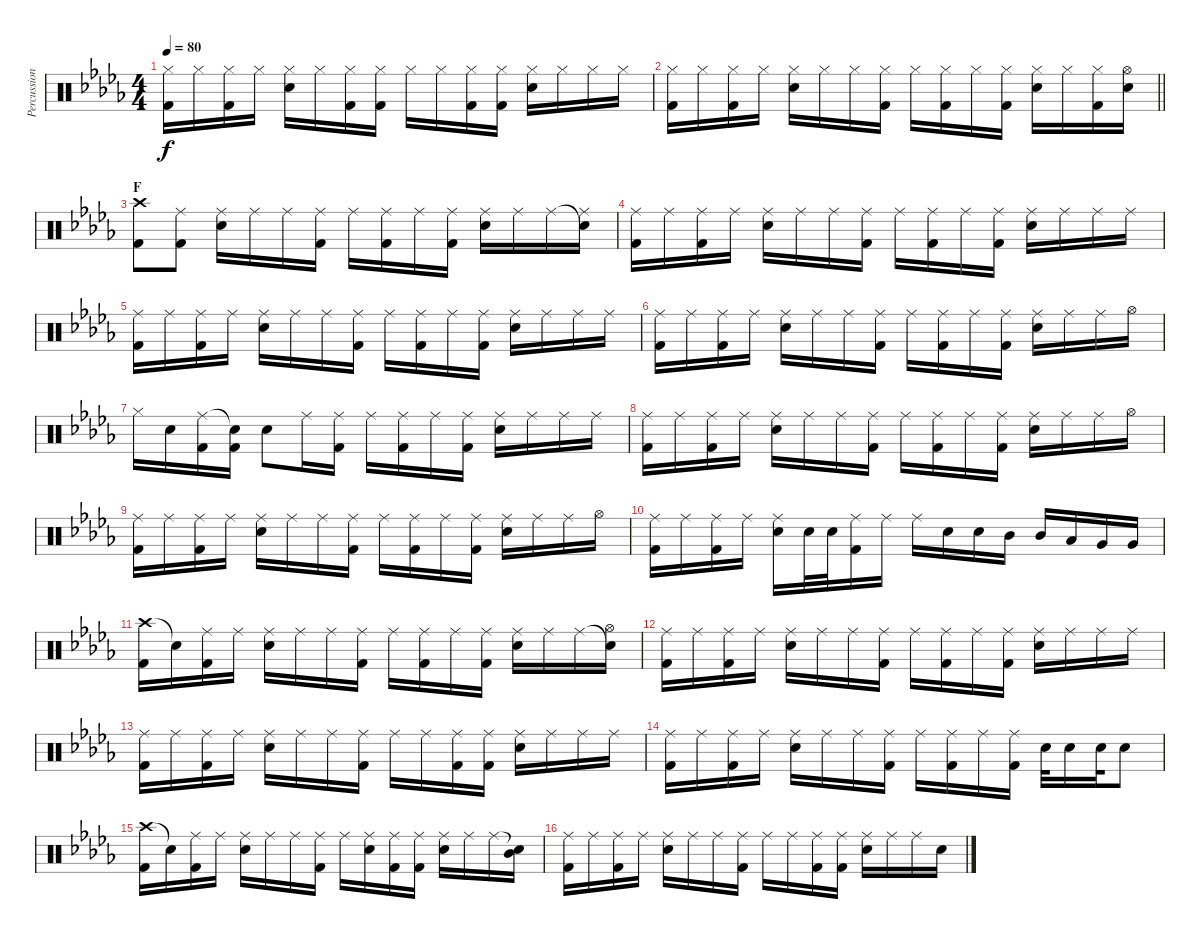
\track ("Percussion" "Percussion") {instrument percussion}
\staff {score}
\articulation defaults
\ts (4 4)
\tempo 80
\clef neutral
\ks db
("Hi-Hat (closed)" "Kick (hit) 2").16{dy f} "Hi-Hat (closed)".16 ("Hi-Hat (closed)" "Kick (hit) 2").16 "Hi-Hat (closed)".16 ("Hi-Hat (closed)" "Electric Snare (hit)").16 "Hi-Hat (closed)".16 ("Hi-Hat (closed)" "Kick (hit) 2").16 ("Hi-Hat (closed)" "Kick (hit) 2").16 "Hi-Hat (closed)".16 "Hi-Hat (closed)".16 ("Hi-Hat (closed)" "Kick (hit) 2").16 ("Hi-Hat (closed)" "Kick (hit) 2").16 ("Hi-Hat (closed)" "Electric Snare (hit)").16 "Hi-Hat (closed)".16 "Hi-Hat (closed)".16 "Hi-Hat (closed)".16 |
\barLineRight lightlight
("Hi-Hat (closed)" "Kick (hit) 2").16 "Hi-Hat (closed)".16 ("Hi-Hat (closed)" "Kick (hit) 2").16 "Hi-Hat (closed)".16 ("Hi-Hat (closed)" "Electric Snare (hit)").16 "Hi-Hat (closed)".16 "Hi-Hat (closed)".16 ("Hi-Hat (closed)" "Kick (hit) 2").16 "Hi-Hat (closed)".16 ("Hi-Hat (closed)" "Kick (hit) 2").16 "Hi-Hat (closed)".16 ("Hi-Hat (closed)" "Kick (hit) 2").16 ("Hi-Hat (closed)" "Electric Snare (hit)").16 "Hi-Hat (closed)".16 ("Hi-Hat (closed)" "Kick (hit) 2").16 ("Hi-Hat (open)" "Electric Snare (hit)").16 |
\section ("" "F")
("Crash high (hit)" "Kick (hit) 2").8 ("Ride (middle)" "Kick (hit) 2").8 ("Ride (middle)" "Electric Snare (hit)").16 "Ride (middle)".16 "Ride (middle)".16 ("Ride (middle)" "Kick (hit) 2").16 "Ride (middle)".16 ("Ride (middle)" "Kick (hit) 2").16 "Ride (middle)".16 ("Ride (middle)" "Kick (hit) 2").16 ("Ride (middle)" "Electric Snare (hit)").16 "Ride (middle)".16 "Ride (middle)".16 ("Snare (hit)"{t} "Ride (middle)").16 |
("Ride (middle)" "Kick (hit) 2").16 "Ride (middle)".16 ("Ride (middle)" "Kick (hit) 2").16 "Ride (middle)".16 ("Ride (middle)" "Electric Snare (hit)").16 "Ride (middle)".16 "Ride (middle)".16 ("Ride (middle)" "Kick (hit) 2").16 "Ride (middle)".16 ("Ride (middle)" "Kick (hit) 2").16 "Ride (middle)".16 ("Ride (middle)" "Kick (hit) 2").16 ("Ride (middle)" "Electric Snare (hit)").16 "Ride (middle)".16 "Ride (middle)".16 "Ride (middle)".16 |
("Ride (middle)" "Kick (hit) 2").16 "Ride (middle)".16 ("Ride (middle)" "Kick (hit) 2").16 "Ride (middle)".16 ("Ride (middle)" "Electric Snare (hit)").16 "Ride (middle)".16 "Ride (middle)".16 ("Ride (middle)" "Kick (hit) 2").16 "Ride (middle)".16 ("Ride (middle)" "Kick (hit) 2").16 "Ride (middle)".16 ("Ride (middle)" "Kick (hit) 2").16 ("Ride (middle)" "Electric Snare (hit)").16 "Ride (middle)".16 "Ride (middle)".16 "Ride (middle)".16 |
("Ride (middle)" "Kick (hit) 2").16 "Ride (middle)".16 ("Ride (middle)" "Kick (hit) 2").16 "Ride (middle)".16 ("Ride (middle)" "Electric Snare (hit)").16 "Ride (middle)".16 "Ride (middle)".16 ("Ride (middle)" "Kick (hit) 2").16 "Ride (middle)".16 ("Ride (middle)" "Kick (hit) 2").16 "Ride (middle)".16 ("Ride (middle)" "Kick (hit) 2").16 ("Ride (middle)" "Electric Snare (hit)").16 "Ride (middle)".16 "Ride (middle)".16 "Hi-Hat (open)".16 |
"Hi-Hat (closed)".16 "Electric Snare (hit)".16 ("Ride (middle)" "Kick (hit) 2").16 ("Snare (hit)"{t} "Kick (hit) 2").16 "Electric Snare (hit)".8 "Ride (middle)".16 ("Ride (middle)" "Kick (hit) 2").16 "Ride (middle)".16 ("Ride (middle)" "Kick (hit) 2").16 "Ride (middle)".16 ("Ride (middle)" "Kick (hit) 2").16 ("Ride (middle)" "Electric Snare (hit)").16 "Ride (middle)".16 "Ride (middle)".16 "Ride (middle)".16 |
("Ride (middle)" "Kick (hit) 2").16 "Ride (middle)".16 ("Ride (middle)" "Kick (hit) 2").16 "Ride (middle)".16 ("Ride (middle)" "Electric Snare (hit)").16 "Ride (middle)".16 "Ride (middle)".16 ("Ride (middle)" "Kick (hit) 2").16 "Ride (middle)".16 ("Ride (middle)" "Kick (hit) 2").16 "Ride (middle)".16 ("Ride (middle)" "Kick (hit) 2").16 ("Ride (middle)" "Electric Snare (hit)").16 "Ride (middle)".16 "Ride (middle)".16 "Hi-Hat (open)".16 |
("Ride (middle)" "Kick (hit) 2").16 "Ride (middle)".16 ("Ride (middle)" "Kick (hit) 2").16 "Ride (middle)".16 ("Ride (middle)" "Electric Snare (hit)").16 "Ride (middle)".16 "Ride (middle)".16 ("Ride (middle)" "Kick (hit) 2").16 "Ride (middle)".16 ("Ride (middle)" "Kick (hit) 2").16 "Ride (middle)".16 ("Ride (middle)" "Kick (hit) 2").16 ("Ride (middle)" "Electric Snare (hit)").16 "Ride (middle)".16 "Ride (middle)".16 "Hi-Hat (open)".16 |
("Ride (middle)" "Kick (hit) 2").16 "Ride (middle)".16 ("Ride (middle)" "Kick (hit) 2").16 "Ride (middle)".16 ("Ride (middle)" "Electric Snare (hit)").16 "Electric Snare (hit)".32 "Electric Snare (hit)".32 ("Ride (middle)" "Kick (hit) 2").16 "Ride (middle)".16 "Ride (middle)".16 "Electric Snare (hit)".16 "Electric Snare (hit)".16 "Mid Tom (hit)".16 "Mid Tom (hit)".16 "Low Tom (hit)".16 "Very Low Tom (hit)".16 "Very Low Tom (hit)".16 |
("Crash high (hit)" "Kick (hit) 2").16 "Snare (hit)"{t}.16 ("Ride (middle)" "Kick (hit) 2").16 "Ride (middle)".16 ("Ride (middle)" "Electric Snare (hit)").16 "Ride (middle)".16 "Ride (middle)".16 ("Ride (middle)" "Kick (hit) 2").16 "Ride (middle)".16 ("Ride (middle)" "Kick (hit) 2").16 "Ride (middle)".16 ("Ride (middle)" "Kick (hit) 2").16 ("Ride (middle)" "Electric Snare (hit)").16 "Ride (middle)".16 "Ride (middle)".16 ("Snare (hit)"{t} "Hi-Hat (open)").16 |
("Ride (middle)" "Kick (hit) 2").16 "Ride (middle)".16 ("Ride (middle)" "Kick (hit) 2").16 "Ride (middle)".16 ("Ride (middle)" "Electric Snare (hit)").16 "Ride (middle)".16 "Ride (middle)".16 ("Ride (middle)" "Kick (hit) 2").16 "Ride (middle)".16 ("Ride (middle)" "Kick (hit) 2").16 "Ride (middle)".16 ("Ride (middle)" "Kick (hit) 2").16 ("Ride (middle)" "Electric Snare (hit)").16 "Ride (middle)".16 "Ride (middle)".16 "Ride (middle)".16 |
("Ride (middle)" "Kick (hit) 2").16 "Ride (middle)".16 ("Ride (middle)" "Kick (hit) 2").16 "Ride (middle)".16 ("Ride (middle)" "Electric Snare (hit)").16 "Ride (middle)".16 "Ride (middle)".16 ("Ride (middle)" "Kick (hit) 2").16 "Ride (middle)".16 "Ride (middle)".16 ("Ride (middle)" "Kick (hit) 2").16 ("Ride (middle)" "Kick (hit) 2").16 ("Ride (middle)" "Electric Snare (hit)").16 "Ride (middle)".16 "Ride (middle)".16 "Ride (middle)".16 |
("Ride (middle)" "Kick (hit) 2").16 "Ride (middle)".16 ("Ride (middle)" "Kick (hit) 2").16 "Ride (middle)".16 ("Ride (middle)" "Electric Snare (hit)").16 "Ride (middle)".16 "Ride (middle)".16 ("Ride (middle)" "Kick (hit) 2").16 "Ride (middle)".16 ("Ride (middle)" "Kick (hit) 2").16 "Ride (middle)".16 ("Ride (middle)" "Kick (hit) 2").16 "Electric Snare (hit)".32 "Electric Snare (hit)".16 "Electric Snare (hit)".32 "Electric Snare (hit)".8 |
("Crash high (hit)" "Kick (hit) 2").16 "Snare (hit)"{t}.16 ("Ride (middle)" "Kick (hit) 2").16 "Ride (middle)".16 ("Ride (middle)" "Electric Snare (hit)").16 "Ride (middle)".16 "Ride (middle)".16 ("Ride (middle)" "Kick (hit) 2").16 "Ride (middle)".16 ("Ride (middle)" "Electric Snare (hit)").16 ("Ride (middle)" "Kick (hit) 2").16 ("Ride (middle)" "Kick (hit) 2").16 ("Ride (middle)" "Electric Snare (hit)").16 "Ride (middle)".16 "Ride (middle)".16 ("Snare (hit)"{t} "Mid Tom (hit)").16 |
("Ride (middle)" "Kick (hit) 2").16 "Ride (middle)".16 ("Ride (middle)" "Kick (hit) 2").16 "Ride (middle)".16 ("Ride (middle)" "Electric Snare (hit)").16 "Ride (middle)".16 "Ride (middle)".16 ("Ride (middle)" "Kick (hit) 2").16 "Ride (middle)".16 "Ride (middle)".16 ("Ride (middle)" "Kick (hit) 2").16 ("Ride (middle)" "Kick (hit) 2").16 ("Ride (middle)" "Electric Snare (hit)").16 "Ride (middle)".16 "Ride (middle)".16 "Electric Snare (hit)".16
